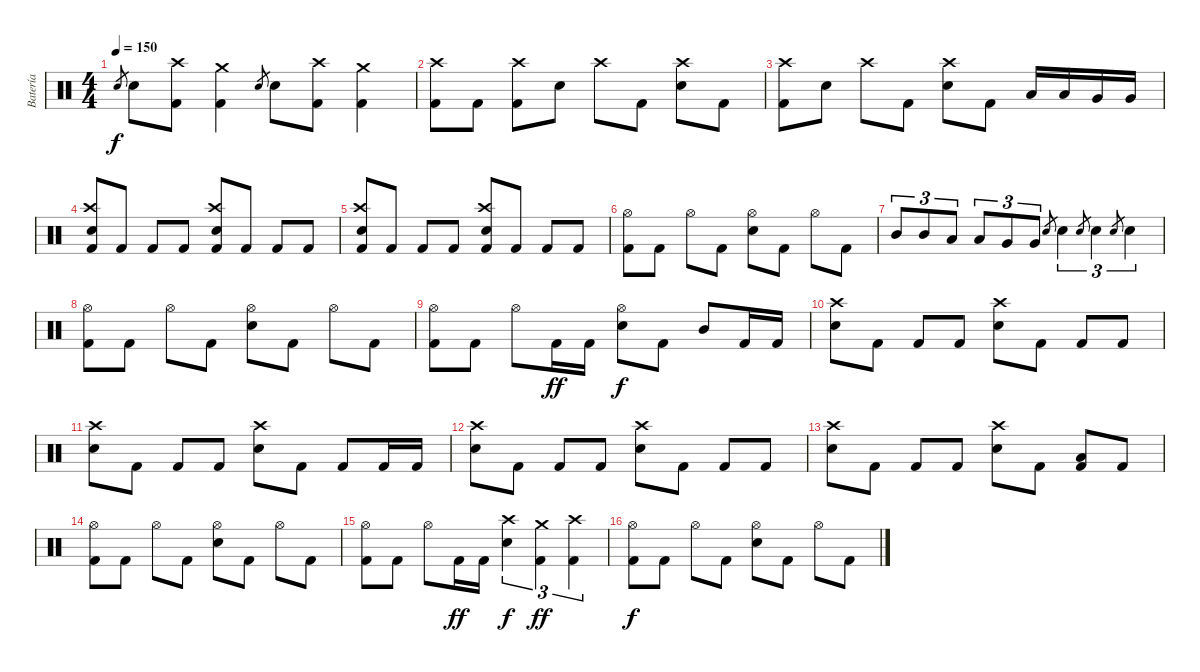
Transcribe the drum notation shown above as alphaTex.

\track ("Batería" "Batería") {instrument percussion}
\staff {score}
\articulation defaults
\ts (4 4)
\tempo 150
\clef neutral
\ks c "Electric Snare (hit)".8{gr dy f} "Electric Snare (hit)".8
("Crash high (hit)" "Kick (hit) 2").8 ("Crash medium (hit)" "Kick (hit) 2").4 "Electric Snare (hit)".8{gr} "Electric Snare (hit)".8 ("Crash high (hit)" "Kick (hit) 2").8 ("Crash medium (hit)" "Kick (hit) 2").4 |
("Crash high (hit)" "Kick (hit) 2").8 "Kick (hit) 2".8 ("Crash high (hit)" "Kick (hit) 2").8 "Electric Snare (hit)".8 "Crash high (hit)".8 "Kick (hit) 2".8 ("Crash high (hit)" "Electric Snare (hit)").8 "Kick (hit) 2".8 |
("Crash high (hit)" "Kick (hit) 2").8 "Electric Snare (hit)".8 "Crash high (hit)".8 "Kick (hit) 2".8 ("Crash high (hit)" "Electric Snare (hit)").8 "Kick (hit) 2".8 "Low Tom (hit)".16 "Low Tom (hit)".16 "Very Low Tom (hit)".16 "Very Low Tom (hit)".16 |
("Crash high (hit)" "Electric Snare (hit)" "Kick (hit) 2").8 "Kick (hit) 2".8 "Kick (hit) 2".8 "Kick (hit) 2".8 ("Crash high (hit)" "Electric Snare (hit)" "Kick (hit) 2").8 "Kick (hit) 2".8 "Kick (hit) 2".8 "Kick (hit) 2".8 |
("Crash high (hit)" "Electric Snare (hit)" "Kick (hit) 2").8 "Kick (hit) 2".8 "Kick (hit) 2".8 "Kick (hit) 2".8 ("Crash high (hit)" "Electric Snare (hit)" "Kick (hit) 2").8 "Kick (hit) 2".8 "Kick (hit) 2".8 "Kick (hit) 2".8 |
("Hi-Hat (open)" "Kick (hit) 2").8 "Kick (hit) 2".8 "Hi-Hat (open)".8 "Kick (hit) 2".8 ("Hi-Hat (open)" "Electric Snare (hit)").8 "Kick (hit) 2".8 "Hi-Hat (open)".8 "Kick (hit) 2".8 |
"Mid Tom (hit)".8{tu (3 2)} "Mid Tom (hit)".8{tu (3 2)} "Low Tom (hit)".8{tu (3 2)} "Low Tom (hit)".8{tu (3 2)} "Very Low Tom (hit)".8{tu (3 2)} "Very Low Tom (hit)".8{tu (3 2)} "Electric Snare (hit)".8{gr} "Electric Snare (hit)".4{tu (3 2)} "Electric Snare (hit)".8{gr} "Electric Snare (hit)".4{tu (3 2)} "Electric Snare (hit)".8{gr} "Electric Snare (hit)".4{tu (3 2)} |
("Hi-Hat (open)" "Kick (hit) 2").8 "Kick (hit) 2".8 "Hi-Hat (open)".8 "Kick (hit) 2".8 ("Hi-Hat (open)" "Electric Snare (hit)").8 "Kick (hit) 2".8 "Hi-Hat (open)".8 "Kick (hit) 2".8 |
("Hi-Hat (open)" "Kick (hit) 2").8 "Kick (hit) 2".8 "Hi-Hat (open)".8 "Kick (hit) 2".16{dy ff} "Kick (hit) 2".16 ("Hi-Hat (open)" "Electric Snare (hit)").8{dy f} "Kick (hit) 2".8 "Mid Tom (hit)".8 "Kick (hit) 2".16 "Kick (hit) 2".16 |
("Crash high (hit)" "Electric Snare (hit)").8 "Kick (hit) 2".8 "Kick (hit) 2".8 "Kick (hit) 2".8 ("Crash high (hit)" "Electric Snare (hit)").8 "Kick (hit) 2".8 "Kick (hit) 2".8 "Kick (hit) 2".8 |
("Crash high (hit)" "Electric Snare (hit)").8 "Kick (hit) 2".8 "Kick (hit) 2".8 "Kick (hit) 2".8 ("Crash high (hit)" "Electric Snare (hit)").8 "Kick (hit) 2".8 "Kick (hit) 2".8 "Kick (hit) 2".16 "Kick (hit) 2".16 |
("Crash high (hit)" "Electric Snare (hit)").8 "Kick (hit) 2".8 "Kick (hit) 2".8 "Kick (hit) 2".8 ("Crash high (hit)" "Electric Snare (hit)").8 "Kick (hit) 2".8 "Kick (hit) 2".8 "Kick (hit) 2".8 |
("Crash high (hit)" "Electric Snare (hit)").8 "Kick (hit) 2".8 "Kick (hit) 2".8 "Kick (hit) 2".8 ("Crash high (hit)" "Electric Snare (hit)").8 "Kick (hit) 2".8 ("Low Tom (hit)" "Kick (hit) 2").8 "Kick (hit) 2".8 |
("Hi-Hat (open)" "Kick (hit) 2").8 "Kick (hit) 2".8 "Hi-Hat (open)".8 "Kick (hit) 2".8 ("Hi-Hat (open)" "Electric Snare (hit)").8 "Kick (hit) 2".8 "Hi-Hat (open)".8 "Kick (hit) 2".8 |
("Hi-Hat (open)" "Kick (hit) 2").8 "Kick (hit) 2".8 "Hi-Hat (open)".8 "Kick (hit) 2".16{dy ff} "Kick (hit) 2".16 ("Crash high (hit)" "Electric Snare (hit)").4{tu (3 2) dy f} ("Crash medium (hit)" "Kick (hit) 2").4{tu (3 2) dy ff} ("Crash high (hit)" "Kick (hit) 2").4{tu (3 2)} |
("Hi-Hat (open)" "Kick (hit) 2").8{dy f} "Kick (hit) 2".8 "Hi-Hat (open)".8 "Kick (hit) 2".8 ("Hi-Hat (open)" "Electric Snare (hit)").8 "Kick (hit) 2".8 "Hi-Hat (open)".8 "Kick (hit) 2".8
